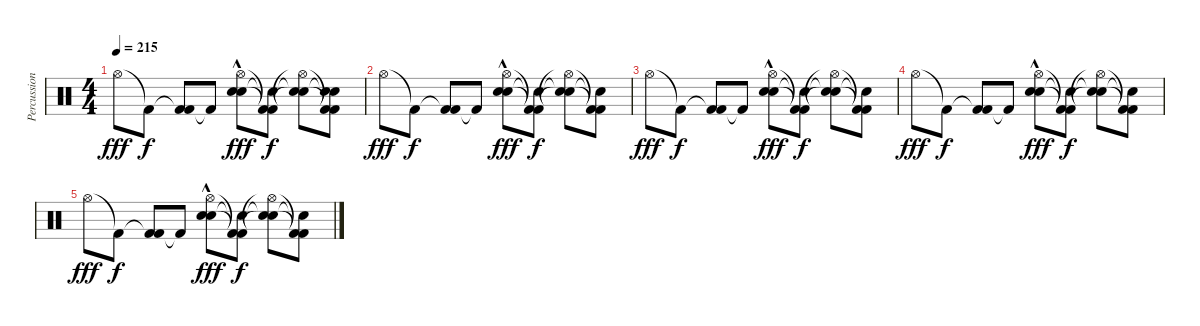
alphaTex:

\track ("Percussion" "Percussion") {instrument percussion}
\staff {score}
\articulation defaults
\ts (4 4)
\tempo 215
\clef neutral
\ks c "Hi-Hat (open)".8{dy fff} "Kick (hit) 2"{t}.8{dy f}
("Kick (hit) 2"{t} "Kick (hit) 2").8 "Kick (hit) 2"{t}.8 ("Snare (hit) 2"{hac} "Hi-Hat (open)"{hac} "Electric Snare (hit)").8{dy fff} ("Kick (hit) 2"{t} "Kick (hit) 2"{t} "Snare (hit)"{t}).8{dy f} ("Snare (hit)"{t} "Hi-Hat (open)"{t} "Snare (hit)"{t}).8 ("Kick (hit) 2"{t} "Kick (hit) 2"{t} "Snare (hit)"{t} "Electric Snare (hit)").8 |
"Hi-Hat (open)".8{dy fff} "Kick (hit) 2"{t}.8{dy f} ("Kick (hit) 2"{t} "Kick (hit) 2").8 "Kick (hit) 2"{t}.8 ("Snare (hit) 2"{hac} "Hi-Hat (open)"{hac} "Electric Snare (hit)").8{dy fff} ("Kick (hit) 2"{t} "Kick (hit) 2"{t} "Snare (hit)"{t}).8{dy f} ("Snare (hit)"{t} "Hi-Hat (open)"{t} "Snare (hit)"{t}).8 ("Kick (hit) 2"{t} "Kick (hit) 2"{t} "Snare (hit)"{t}).8 |
"Hi-Hat (open)".8{dy fff} "Kick (hit) 2"{t}.8{dy f} ("Kick (hit) 2"{t} "Kick (hit) 2").8 "Kick (hit) 2"{t}.8 ("Snare (hit) 2"{hac} "Hi-Hat (open)"{hac} "Electric Snare (hit)").8{dy fff} ("Kick (hit) 2"{t} "Kick (hit) 2"{t} "Snare (hit)"{t}).8{dy f} ("Snare (hit)"{t} "Hi-Hat (open)"{t} "Snare (hit)"{t}).8 ("Kick (hit) 2"{t} "Kick (hit) 2"{t} "Snare (hit)"{t}).8 |
"Hi-Hat (open)".8{dy fff} "Kick (hit) 2"{t}.8{dy f} ("Kick (hit) 2"{t} "Kick (hit) 2").8 "Kick (hit) 2"{t}.8 ("Snare (hit) 2"{hac} "Hi-Hat (open)"{hac} "Electric Snare (hit)").8{dy fff} ("Kick (hit) 2"{t} "Kick (hit) 2"{t} "Snare (hit)"{t}).8{dy f} ("Snare (hit)"{t} "Hi-Hat (open)"{t} "Snare (hit)"{t}).8 ("Kick (hit) 2"{t} "Kick (hit) 2"{t} "Snare (hit)"{t}).8 |
"Hi-Hat (open)".8{dy fff} "Kick (hit) 2"{t}.8{dy f} ("Kick (hit) 2"{t} "Kick (hit) 2").8 "Kick (hit) 2"{t}.8 ("Snare (hit) 2"{hac} "Hi-Hat (open)"{hac} "Electric Snare (hit)").8{dy fff} ("Kick (hit) 2"{t} "Kick (hit) 2"{t} "Snare (hit)"{t}).8{dy f} ("Snare (hit)"{t} "Hi-Hat (open)"{t} "Snare (hit)"{t}).8 ("Kick (hit) 2"{t} "Kick (hit) 2"{t} "Snare (hit)"{t}).8
